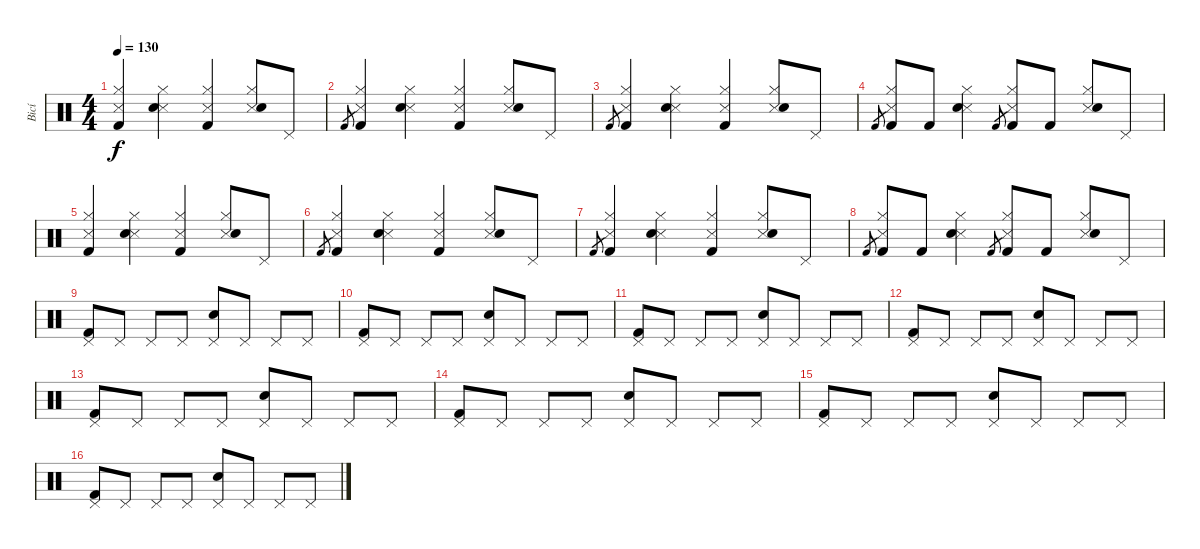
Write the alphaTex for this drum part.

\track ("Bicí" "Bicí") {instrument percussion}
\staff {score}
\articulation defaults
\ts (4 4)
\tempo 130
\clef neutral
\ks c
("Snare (side stick) 3" "Hi-Hat (closed)" "Kick (hit) 2").4{dy f} ("Snare (side stick) 3" "Hi-Hat (closed)" "Snare (hit) 2").4 ("Snare (side stick) 3" "Hi-Hat (closed)" "Kick (hit) 2").4 ("Snare (side stick) 3" "Hi-Hat (closed)" "Snare (hit) 2").8 "Pedal Hi-Hat (hit)".8 |
"Kick (hit) 2".8{gr} ("Snare (side stick) 3" "Hi-Hat (closed)" "Kick (hit) 2").4 ("Snare (side stick) 3" "Hi-Hat (closed)" "Snare (hit) 2").4 ("Snare (side stick) 3" "Hi-Hat (closed)" "Kick (hit) 2").4 ("Snare (side stick) 3" "Hi-Hat (closed)" "Snare (hit) 2").8 "Pedal Hi-Hat (hit)".8 |
"Kick (hit) 2".8{gr} ("Snare (side stick) 3" "Hi-Hat (closed)" "Kick (hit) 2").4 ("Snare (side stick) 3" "Hi-Hat (closed)" "Snare (hit) 2").4 ("Snare (side stick) 3" "Hi-Hat (closed)" "Kick (hit) 2").4 ("Snare (side stick) 3" "Hi-Hat (closed)" "Snare (hit) 2").8 "Pedal Hi-Hat (hit)".8 |
"Kick (hit) 2".8{gr} ("Snare (side stick) 3" "Hi-Hat (closed)" "Kick (hit) 2").8 "Kick (hit) 2".8 ("Snare (side stick) 3" "Hi-Hat (closed)" "Snare (hit) 2").4 "Kick (hit) 2".8{gr} ("Snare (side stick) 3" "Hi-Hat (closed)" "Kick (hit) 2").8 "Kick (hit) 2".8 ("Snare (side stick) 3" "Hi-Hat (closed)" "Snare (hit) 2").8 "Pedal Hi-Hat (hit)".8 |
("Snare (side stick) 3" "Hi-Hat (closed)" "Kick (hit) 2").4 ("Snare (side stick) 3" "Hi-Hat (closed)" "Snare (hit) 2").4 ("Snare (side stick) 3" "Hi-Hat (closed)" "Kick (hit) 2").4 ("Snare (side stick) 3" "Hi-Hat (closed)" "Snare (hit) 2").8 "Pedal Hi-Hat (hit)".8 |
"Kick (hit) 2".8{gr} ("Snare (side stick) 3" "Hi-Hat (closed)" "Kick (hit) 2").4 ("Snare (side stick) 3" "Hi-Hat (closed)" "Snare (hit) 2").4 ("Snare (side stick) 3" "Hi-Hat (closed)" "Kick (hit) 2").4 ("Snare (side stick) 3" "Hi-Hat (closed)" "Snare (hit) 2").8 "Pedal Hi-Hat (hit)".8 |
"Kick (hit) 2".8{gr} ("Snare (side stick) 3" "Hi-Hat (closed)" "Kick (hit) 2").4 ("Snare (side stick) 3" "Hi-Hat (closed)" "Snare (hit) 2").4 ("Snare (side stick) 3" "Hi-Hat (closed)" "Kick (hit) 2").4 ("Snare (side stick) 3" "Hi-Hat (closed)" "Snare (hit) 2").8 "Pedal Hi-Hat (hit)".8 |
"Kick (hit) 2".8{gr} ("Snare (side stick) 3" "Hi-Hat (closed)" "Kick (hit) 2").8 "Kick (hit) 2".8 ("Snare (side stick) 3" "Hi-Hat (closed)" "Snare (hit) 2").4 "Kick (hit) 2".8{gr} ("Snare (side stick) 3" "Hi-Hat (closed)" "Kick (hit) 2").8 "Kick (hit) 2".8 ("Snare (side stick) 3" "Hi-Hat (closed)" "Snare (hit) 2").8 "Pedal Hi-Hat (hit)".8 |
("Kick (hit) 2" "Pedal Hi-Hat (hit)").8 "Pedal Hi-Hat (hit)".8 "Pedal Hi-Hat (hit)".8 "Pedal Hi-Hat (hit)".8 ("Pedal Hi-Hat (hit)" "Snare (hit) 2").8 "Pedal Hi-Hat (hit)".8 "Pedal Hi-Hat (hit)".8 "Pedal Hi-Hat (hit)".8 |
("Kick (hit) 2" "Pedal Hi-Hat (hit)").8 "Pedal Hi-Hat (hit)".8 "Pedal Hi-Hat (hit)".8 "Pedal Hi-Hat (hit)".8 ("Pedal Hi-Hat (hit)" "Snare (hit) 2").8 "Pedal Hi-Hat (hit)".8 "Pedal Hi-Hat (hit)".8 "Pedal Hi-Hat (hit)".8 |
("Kick (hit) 2" "Pedal Hi-Hat (hit)").8 "Pedal Hi-Hat (hit)".8 "Pedal Hi-Hat (hit)".8 "Pedal Hi-Hat (hit)".8 ("Pedal Hi-Hat (hit)" "Snare (hit) 2").8 "Pedal Hi-Hat (hit)".8 "Pedal Hi-Hat (hit)".8 "Pedal Hi-Hat (hit)".8 |
("Kick (hit) 2" "Pedal Hi-Hat (hit)").8 "Pedal Hi-Hat (hit)".8 "Pedal Hi-Hat (hit)".8 "Pedal Hi-Hat (hit)".8 ("Pedal Hi-Hat (hit)" "Snare (hit) 2").8 "Pedal Hi-Hat (hit)".8 "Pedal Hi-Hat (hit)".8 "Pedal Hi-Hat (hit)".8 |
("Kick (hit) 2" "Pedal Hi-Hat (hit)").8 "Pedal Hi-Hat (hit)".8 "Pedal Hi-Hat (hit)".8 "Pedal Hi-Hat (hit)".8 ("Pedal Hi-Hat (hit)" "Snare (hit) 2").8 "Pedal Hi-Hat (hit)".8 "Pedal Hi-Hat (hit)".8 "Pedal Hi-Hat (hit)".8 |
("Kick (hit) 2" "Pedal Hi-Hat (hit)").8 "Pedal Hi-Hat (hit)".8 "Pedal Hi-Hat (hit)".8 "Pedal Hi-Hat (hit)".8 ("Pedal Hi-Hat (hit)" "Snare (hit) 2").8 "Pedal Hi-Hat (hit)".8 "Pedal Hi-Hat (hit)".8 "Pedal Hi-Hat (hit)".8 |
("Kick (hit) 2" "Pedal Hi-Hat (hit)").8 "Pedal Hi-Hat (hit)".8 "Pedal Hi-Hat (hit)".8 "Pedal Hi-Hat (hit)".8 ("Pedal Hi-Hat (hit)" "Snare (hit) 2").8 "Pedal Hi-Hat (hit)".8 "Pedal Hi-Hat (hit)".8 "Pedal Hi-Hat (hit)".8 |
("Kick (hit) 2" "Pedal Hi-Hat (hit)").8 "Pedal Hi-Hat (hit)".8 "Pedal Hi-Hat (hit)".8 "Pedal Hi-Hat (hit)".8 ("Pedal Hi-Hat (hit)" "Snare (hit) 2").8 "Pedal Hi-Hat (hit)".8 "Pedal Hi-Hat (hit)".8 "Pedal Hi-Hat (hit)".8
